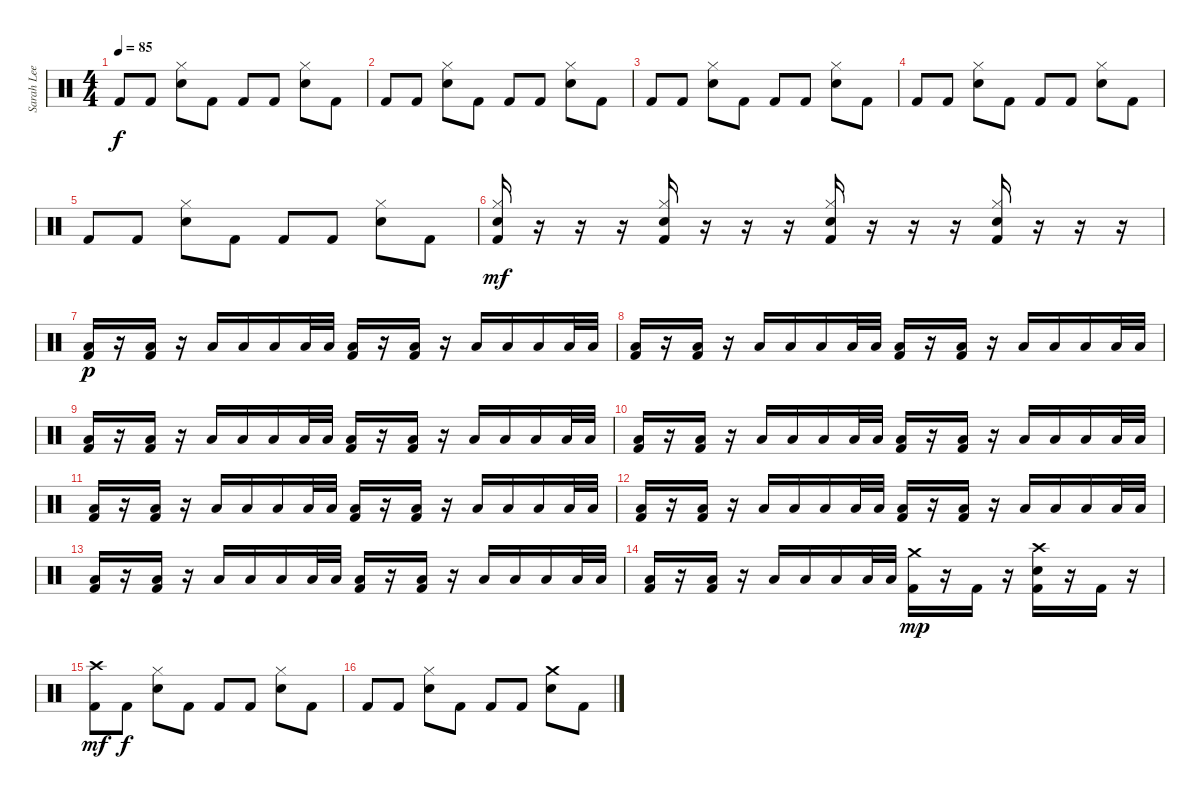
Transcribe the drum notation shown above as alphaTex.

\track ("Sarah Lee Lucas" "Sarah Lee ") {instrument percussion}
\staff {score}
\articulation defaults
\ts (4 4)
\tempo 85
\clef neutral
\ks c "Kick (hit) 2".8{dy f} "Kick (hit) 2".8
("Hi-Hat (closed)" "Electric Snare (hit)").8 "Kick (hit) 2".8 "Kick (hit) 2".8 "Kick (hit) 2".8 ("Hi-Hat (closed)" "Electric Snare (hit)").8 "Kick (hit) 2".8 |
"Kick (hit) 2".8 "Kick (hit) 2".8 ("Hi-Hat (closed)" "Electric Snare (hit)").8 "Kick (hit) 2".8 "Kick (hit) 2".8 "Kick (hit) 2".8 ("Hi-Hat (closed)" "Electric Snare (hit)").8 "Kick (hit) 2".8 |
"Kick (hit) 2".8 "Kick (hit) 2".8 ("Hi-Hat (closed)" "Electric Snare (hit)").8 "Kick (hit) 2".8 "Kick (hit) 2".8 "Kick (hit) 2".8 ("Hi-Hat (closed)" "Electric Snare (hit)").8 "Kick (hit) 2".8 |
"Kick (hit) 2".8 "Kick (hit) 2".8 ("Hi-Hat (closed)" "Electric Snare (hit)").8 "Kick (hit) 2".8 "Kick (hit) 2".8 "Kick (hit) 2".8 ("Hi-Hat (closed)" "Electric Snare (hit)").8 "Kick (hit) 2".8 |
"Kick (hit) 2".8 "Kick (hit) 2".8 ("Hi-Hat (closed)" "Electric Snare (hit)").8 "Kick (hit) 2".8 "Kick (hit) 2".8 "Kick (hit) 2".8 ("Hi-Hat (closed)" "Electric Snare (hit)").8 "Kick (hit) 2".8 |
("Hi-Hat (closed)" "Electric Snare (hit)" "Kick (hit) 2").16{dy mf} r.16 r.16 r.16 ("Hi-Hat (closed)" "Electric Snare (hit)" "Kick (hit) 2").16 r.16 r.16 r.16 ("Hi-Hat (closed)" "Electric Snare (hit)" "Kick (hit) 2").16 r.16 r.16 r.16 ("Hi-Hat (closed)" "Electric Snare (hit)" "Kick (hit) 2").16 r.16 r.16 r.16 |
("Low Floor Tom (hit)" "Kick (hit) 2").16{dy p} r.16 ("Low Floor Tom (hit)" "Kick (hit) 2").16 r.16 "Low Floor Tom (hit)".16 "Low Floor Tom (hit)".16 "Low Floor Tom (hit)".16 "Low Floor Tom (hit)".32 "Low Floor Tom (hit)".32 ("Low Floor Tom (hit)" "Kick (hit) 2").16 r.16 ("Low Floor Tom (hit)" "Kick (hit) 2").16 r.16 "Low Floor Tom (hit)".16 "Low Floor Tom (hit)".16 "Low Floor Tom (hit)".16 "Low Floor Tom (hit)".32 "Low Floor Tom (hit)".32 |
("Low Floor Tom (hit)" "Kick (hit) 2").16 r.16 ("Low Floor Tom (hit)" "Kick (hit) 2").16 r.16 "Low Floor Tom (hit)".16 "Low Floor Tom (hit)".16 "Low Floor Tom (hit)".16 "Low Floor Tom (hit)".32 "Low Floor Tom (hit)".32 ("Low Floor Tom (hit)" "Kick (hit) 2").16 r.16 ("Low Floor Tom (hit)" "Kick (hit) 2").16 r.16 "Low Floor Tom (hit)".16 "Low Floor Tom (hit)".16 "Low Floor Tom (hit)".16 "Low Floor Tom (hit)".32 "Low Floor Tom (hit)".32 |
("Low Floor Tom (hit)" "Kick (hit) 2").16 r.16 ("Low Floor Tom (hit)" "Kick (hit) 2").16 r.16 "Low Floor Tom (hit)".16 "Low Floor Tom (hit)".16 "Low Floor Tom (hit)".16 "Low Floor Tom (hit)".32 "Low Floor Tom (hit)".32 ("Low Floor Tom (hit)" "Kick (hit) 2").16 r.16 ("Low Floor Tom (hit)" "Kick (hit) 2").16 r.16 "Low Floor Tom (hit)".16 "Low Floor Tom (hit)".16 "Low Floor Tom (hit)".16 "Low Floor Tom (hit)".32 "Low Floor Tom (hit)".32 |
("Low Floor Tom (hit)" "Kick (hit) 2").16 r.16 ("Low Floor Tom (hit)" "Kick (hit) 2").16 r.16 "Low Floor Tom (hit)".16 "Low Floor Tom (hit)".16 "Low Floor Tom (hit)".16 "Low Floor Tom (hit)".32 "Low Floor Tom (hit)".32 ("Low Floor Tom (hit)" "Kick (hit) 2").16 r.16 ("Low Floor Tom (hit)" "Kick (hit) 2").16 r.16 "Low Floor Tom (hit)".16 "Low Floor Tom (hit)".16 "Low Floor Tom (hit)".16 "Low Floor Tom (hit)".32 "Low Floor Tom (hit)".32 |
("Low Floor Tom (hit)" "Kick (hit) 2").16 r.16 ("Low Floor Tom (hit)" "Kick (hit) 2").16 r.16 "Low Floor Tom (hit)".16 "Low Floor Tom (hit)".16 "Low Floor Tom (hit)".16 "Low Floor Tom (hit)".32 "Low Floor Tom (hit)".32 ("Low Floor Tom (hit)" "Kick (hit) 2").16 r.16 ("Low Floor Tom (hit)" "Kick (hit) 2").16 r.16 "Low Floor Tom (hit)".16 "Low Floor Tom (hit)".16 "Low Floor Tom (hit)".16 "Low Floor Tom (hit)".32 "Low Floor Tom (hit)".32 |
("Low Floor Tom (hit)" "Kick (hit) 2").16 r.16 ("Low Floor Tom (hit)" "Kick (hit) 2").16 r.16 "Low Floor Tom (hit)".16 "Low Floor Tom (hit)".16 "Low Floor Tom (hit)".16 "Low Floor Tom (hit)".32 "Low Floor Tom (hit)".32 ("Low Floor Tom (hit)" "Kick (hit) 2").16 r.16 ("Low Floor Tom (hit)" "Kick (hit) 2").16 r.16 "Low Floor Tom (hit)".16 "Low Floor Tom (hit)".16 "Low Floor Tom (hit)".16 "Low Floor Tom (hit)".32 "Low Floor Tom (hit)".32 |
("Low Floor Tom (hit)" "Kick (hit) 2").16 r.16 ("Low Floor Tom (hit)" "Kick (hit) 2").16 r.16 "Low Floor Tom (hit)".16 "Low Floor Tom (hit)".16 "Low Floor Tom (hit)".16 "Low Floor Tom (hit)".32 "Low Floor Tom (hit)".32 ("Low Floor Tom (hit)" "Kick (hit) 2").16 r.16 ("Low Floor Tom (hit)" "Kick (hit) 2").16 r.16 "Low Floor Tom (hit)".16 "Low Floor Tom (hit)".16 "Low Floor Tom (hit)".16 "Low Floor Tom (hit)".32 "Low Floor Tom (hit)".32 |
("Low Floor Tom (hit)" "Kick (hit) 2").16 r.16 ("Low Floor Tom (hit)" "Kick (hit) 2").16 r.16 "Low Floor Tom (hit)".16 "Low Floor Tom (hit)".16 "Low Floor Tom (hit)".16 "Low Floor Tom (hit)".32 "Low Floor Tom (hit)".32 ("Crash medium (hit)" "Kick (hit) 2").16{dy mp} r.16 "Kick (hit) 2".16 r.16 ("Crash high (hit)" "Electric Snare (hit)" "Kick (hit) 2").16 r.16 "Kick (hit) 2".16 r.16 |
("Crash high (hit)" "Kick (hit) 2").8{dy mf} "Kick (hit) 2".8{dy f} ("Hi-Hat (closed)" "Electric Snare (hit)").8 "Kick (hit) 2".8 "Kick (hit) 2".8 "Kick (hit) 2".8 ("Hi-Hat (closed)" "Electric Snare (hit)").8 "Kick (hit) 2".8 |
"Kick (hit) 2".8 "Kick (hit) 2".8 ("Hi-Hat (closed)" "Electric Snare (hit)").8 "Kick (hit) 2".8 "Kick (hit) 2".8 "Kick (hit) 2".8 ("Crash medium (hit)" "Electric Snare (hit)").8 "Kick (hit) 2".8
